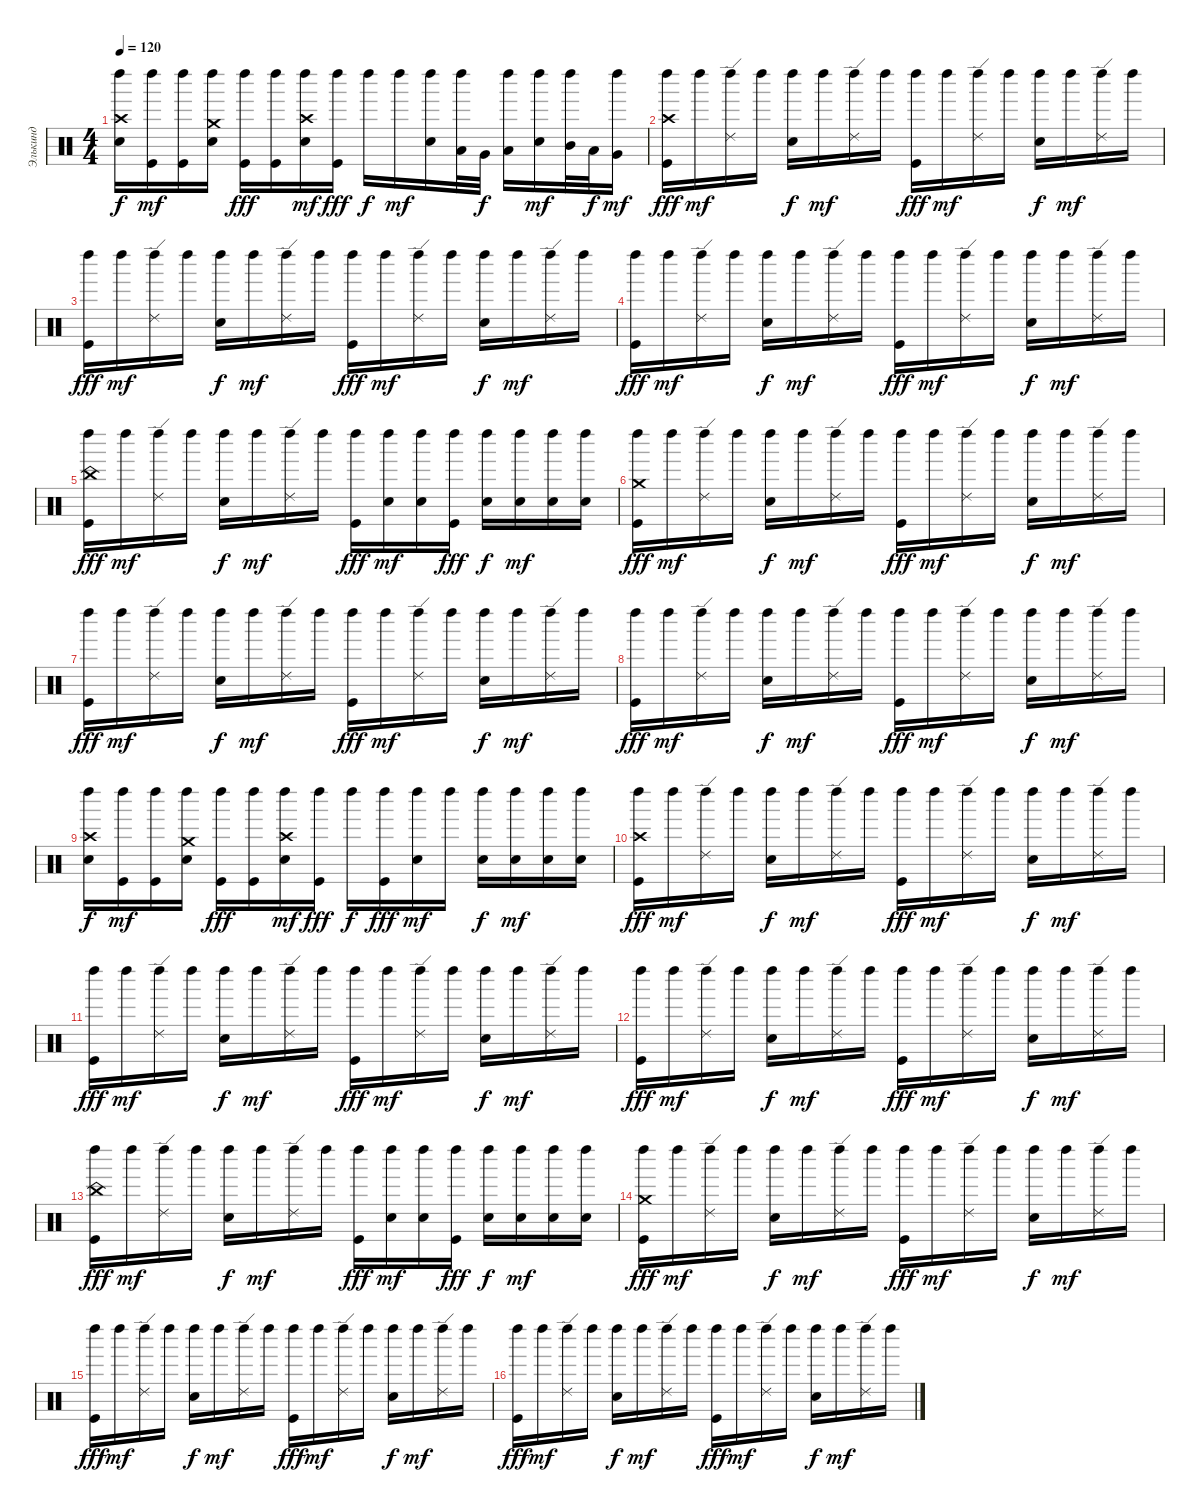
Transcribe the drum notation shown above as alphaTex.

\track ("Элькинд" "Элькинд") {instrument percussion}
\staff {score}
\articulation defaults
\ts (4 4)
\tempo 120
\clef neutral
\ks c
("Crash high (hit)" "Electric Snare (hit)" "Left Maraca (hit)").16{dy f} ("Kick (hit)" "Left Maraca (hit)").16{dy mf} ("Kick (hit)" "Left Maraca (hit)").16 ("Left Maraca (hit)" "Crash medium (hit)" "Electric Snare (hit)").16 ("Kick (hit)" "Left Maraca (hit)").16{dy fff} ("Left Maraca (hit)" "Kick (hit)").16 ("Left Maraca (hit)" "Crash high (hit)" "Electric Snare (hit)").16{dy mf} ("Left Maraca (hit)" "Kick (hit)").16{dy fff} "Left Maraca (hit)".16{dy f} "Left Maraca (hit)".16{dy mf} ("Electric Snare (hit)" "Left Maraca (hit)").16 ("Low Tom (hit)" "Left Maraca (hit)").32 "Very Low Tom (hit)".32{dy f} ("Low Floor Tom (hit)" "Left Maraca (hit)").16 ("Electric Snare (hit)" "Left Maraca (hit)").16{dy mf} ("Mid Tom (hit)" "Left Maraca (hit)").32 "Low Tom (hit)".32{dy f} ("Very Low Tom (hit)" "Left Maraca (hit)").16{dy mf} |
("Left Maraca (hit)" "Crash high (hit)" "Kick (hit)").16{dy fff} "Left Maraca (hit)".16{dy mf} ("Left Maraca (hit)" "Ride (edge) 2").16 "Left Maraca (hit)".16 ("Left Maraca (hit)" "Electric Snare (hit)").16{dy f} "Left Maraca (hit)".16{dy mf} ("Left Maraca (hit)" "Ride (edge) 2").16 "Left Maraca (hit)".16 ("Left Maraca (hit)" "Kick (hit)").16{dy fff} "Left Maraca (hit)".16{dy mf} ("Left Maraca (hit)" "Ride (edge) 2").16 "Left Maraca (hit)".16 ("Left Maraca (hit)" "Electric Snare (hit)").16{dy f} "Left Maraca (hit)".16{dy mf} ("Left Maraca (hit)" "Ride (edge) 2").16 "Left Maraca (hit)".16 |
("Left Maraca (hit)" "Kick (hit)").16{dy fff} "Left Maraca (hit)".16{dy mf} ("Left Maraca (hit)" "Ride (edge) 2").16 "Left Maraca (hit)".16 ("Left Maraca (hit)" "Electric Snare (hit)").16{dy f} "Left Maraca (hit)".16{dy mf} ("Left Maraca (hit)" "Ride (edge) 2").16 "Left Maraca (hit)".16 ("Left Maraca (hit)" "Kick (hit)").16{dy fff} "Left Maraca (hit)".16{dy mf} ("Left Maraca (hit)" "Ride (edge) 2").16 "Left Maraca (hit)".16 ("Left Maraca (hit)" "Electric Snare (hit)").16{dy f} "Left Maraca (hit)".16{dy mf} ("Left Maraca (hit)" "Ride (edge) 2").16 "Left Maraca (hit)".16 |
("Left Maraca (hit)" "Kick (hit)").16{dy fff} "Left Maraca (hit)".16{dy mf} ("Left Maraca (hit)" "Ride (edge) 2").16 "Left Maraca (hit)".16 ("Left Maraca (hit)" "Electric Snare (hit)").16{dy f} "Left Maraca (hit)".16{dy mf} ("Left Maraca (hit)" "Ride (edge) 2").16 "Left Maraca (hit)".16 ("Left Maraca (hit)" "Kick (hit)").16{dy fff} "Left Maraca (hit)".16{dy mf} ("Left Maraca (hit)" "Ride (edge) 2").16 "Left Maraca (hit)".16 ("Left Maraca (hit)" "Electric Snare (hit)").16{dy f} "Left Maraca (hit)".16{dy mf} ("Left Maraca (hit)" "Ride (edge) 2").16 "Left Maraca (hit)".16 |
("Kick (hit)" "China (hit)" "Left Maraca (hit)").16{dy fff} "Left Maraca (hit)".16{dy mf} ("Left Maraca (hit)" "Ride (edge) 2").16 "Left Maraca (hit)".16 ("Electric Snare (hit)" "Left Maraca (hit)").16{dy f} "Left Maraca (hit)".16{dy mf} ("Ride (edge) 2" "Left Maraca (hit)").16 "Left Maraca (hit)".16 ("Left Maraca (hit)" "Kick (hit)").16{dy fff} ("Electric Snare (hit)" "Left Maraca (hit)").16{dy mf} ("Left Maraca (hit)" "Electric Snare (hit)").16 ("Left Maraca (hit)" "Kick (hit)").16{dy fff} ("Electric Snare (hit)" "Left Maraca (hit)").16{dy f} ("Left Maraca (hit)" "Electric Snare (hit)").16{dy mf} ("Left Maraca (hit)" "Electric Snare (hit)").16 ("Electric Snare (hit)" "Left Maraca (hit)").16 |
("Left Maraca (hit)" "Crash medium (hit)" "Kick (hit)").16{dy fff} "Left Maraca (hit)".16{dy mf} ("Left Maraca (hit)" "Ride (edge) 2").16 "Left Maraca (hit)".16 ("Left Maraca (hit)" "Electric Snare (hit)").16{dy f} "Left Maraca (hit)".16{dy mf} ("Left Maraca (hit)" "Ride (edge) 2").16 "Left Maraca (hit)".16 ("Left Maraca (hit)" "Kick (hit)").16{dy fff} "Left Maraca (hit)".16{dy mf} ("Left Maraca (hit)" "Ride (edge) 2").16 "Left Maraca (hit)".16 ("Left Maraca (hit)" "Electric Snare (hit)").16{dy f} "Left Maraca (hit)".16{dy mf} ("Left Maraca (hit)" "Ride (edge) 2").16 "Left Maraca (hit)".16 |
("Left Maraca (hit)" "Kick (hit)").16{dy fff} "Left Maraca (hit)".16{dy mf} ("Left Maraca (hit)" "Ride (edge) 2").16 "Left Maraca (hit)".16 ("Left Maraca (hit)" "Electric Snare (hit)").16{dy f} "Left Maraca (hit)".16{dy mf} ("Left Maraca (hit)" "Ride (edge) 2").16 "Left Maraca (hit)".16 ("Left Maraca (hit)" "Kick (hit)").16{dy fff} "Left Maraca (hit)".16{dy mf} ("Left Maraca (hit)" "Ride (edge) 2").16 "Left Maraca (hit)".16 ("Left Maraca (hit)" "Electric Snare (hit)").16{dy f} "Left Maraca (hit)".16{dy mf} ("Left Maraca (hit)" "Ride (edge) 2").16 "Left Maraca (hit)".16 |
("Left Maraca (hit)" "Kick (hit)").16{dy fff} "Left Maraca (hit)".16{dy mf} ("Left Maraca (hit)" "Ride (edge) 2").16 "Left Maraca (hit)".16 ("Left Maraca (hit)" "Electric Snare (hit)").16{dy f} "Left Maraca (hit)".16{dy mf} ("Left Maraca (hit)" "Ride (edge) 2").16 "Left Maraca (hit)".16 ("Left Maraca (hit)" "Kick (hit)").16{dy fff} "Left Maraca (hit)".16{dy mf} ("Left Maraca (hit)" "Ride (edge) 2").16 "Left Maraca (hit)".16 ("Left Maraca (hit)" "Electric Snare (hit)").16{dy f} "Left Maraca (hit)".16{dy mf} ("Left Maraca (hit)" "Ride (edge) 2").16 "Left Maraca (hit)".16 |
("Crash high (hit)" "Electric Snare (hit)" "Left Maraca (hit)").16{dy f} ("Kick (hit)" "Left Maraca (hit)").16{dy mf} ("Kick (hit)" "Left Maraca (hit)").16 ("Left Maraca (hit)" "Crash medium (hit)" "Electric Snare (hit)").16 ("Kick (hit)" "Left Maraca (hit)").16{dy fff} ("Left Maraca (hit)" "Kick (hit)").16 ("Left Maraca (hit)" "Crash high (hit)" "Electric Snare (hit)").16{dy mf} ("Left Maraca (hit)" "Kick (hit)").16{dy fff} "Left Maraca (hit)".16{dy f} ("Left Maraca (hit)" "Kick (hit)").16{dy fff} ("Electric Snare (hit)" "Left Maraca (hit)").16{dy mf} "Left Maraca (hit)".16 ("Left Maraca (hit)" "Electric Snare (hit)").16{dy f} ("Electric Snare (hit)" "Left Maraca (hit)").16{dy mf} ("Electric Snare (hit)" "Left Maraca (hit)").16 ("Electric Snare (hit)" "Left Maraca (hit)").16 |
("Left Maraca (hit)" "Crash high (hit)" "Kick (hit)").16{dy fff} "Left Maraca (hit)".16{dy mf} ("Left Maraca (hit)" "Ride (edge) 2").16 "Left Maraca (hit)".16 ("Left Maraca (hit)" "Electric Snare (hit)").16{dy f} "Left Maraca (hit)".16{dy mf} ("Left Maraca (hit)" "Ride (edge) 2").16 "Left Maraca (hit)".16 ("Left Maraca (hit)" "Kick (hit)").16{dy fff} "Left Maraca (hit)".16{dy mf} ("Left Maraca (hit)" "Ride (edge) 2").16 "Left Maraca (hit)".16 ("Left Maraca (hit)" "Electric Snare (hit)").16{dy f} "Left Maraca (hit)".16{dy mf} ("Left Maraca (hit)" "Ride (edge) 2").16 "Left Maraca (hit)".16 |
("Left Maraca (hit)" "Kick (hit)").16{dy fff} "Left Maraca (hit)".16{dy mf} ("Left Maraca (hit)" "Ride (edge) 2").16 "Left Maraca (hit)".16 ("Left Maraca (hit)" "Electric Snare (hit)").16{dy f} "Left Maraca (hit)".16{dy mf} ("Left Maraca (hit)" "Ride (edge) 2").16 "Left Maraca (hit)".16 ("Left Maraca (hit)" "Kick (hit)").16{dy fff} "Left Maraca (hit)".16{dy mf} ("Left Maraca (hit)" "Ride (edge) 2").16 "Left Maraca (hit)".16 ("Left Maraca (hit)" "Electric Snare (hit)").16{dy f} "Left Maraca (hit)".16{dy mf} ("Left Maraca (hit)" "Ride (edge) 2").16 "Left Maraca (hit)".16 |
("Left Maraca (hit)" "Kick (hit)").16{dy fff} "Left Maraca (hit)".16{dy mf} ("Left Maraca (hit)" "Ride (edge) 2").16 "Left Maraca (hit)".16 ("Left Maraca (hit)" "Electric Snare (hit)").16{dy f} "Left Maraca (hit)".16{dy mf} ("Left Maraca (hit)" "Ride (edge) 2").16 "Left Maraca (hit)".16 ("Left Maraca (hit)" "Kick (hit)").16{dy fff} "Left Maraca (hit)".16{dy mf} ("Left Maraca (hit)" "Ride (edge) 2").16 "Left Maraca (hit)".16 ("Left Maraca (hit)" "Electric Snare (hit)").16{dy f} "Left Maraca (hit)".16{dy mf} ("Left Maraca (hit)" "Ride (edge) 2").16 "Left Maraca (hit)".16 |
("Kick (hit)" "China (hit)" "Left Maraca (hit)").16{dy fff} "Left Maraca (hit)".16{dy mf} ("Left Maraca (hit)" "Ride (edge) 2").16 "Left Maraca (hit)".16 ("Electric Snare (hit)" "Left Maraca (hit)").16{dy f} "Left Maraca (hit)".16{dy mf} ("Ride (edge) 2" "Left Maraca (hit)").16 "Left Maraca (hit)".16 ("Left Maraca (hit)" "Kick (hit)").16{dy fff} ("Electric Snare (hit)" "Left Maraca (hit)").16{dy mf} ("Left Maraca (hit)" "Electric Snare (hit)").16 ("Left Maraca (hit)" "Kick (hit)").16{dy fff} ("Electric Snare (hit)" "Left Maraca (hit)").16{dy f} ("Left Maraca (hit)" "Electric Snare (hit)").16{dy mf} ("Left Maraca (hit)" "Electric Snare (hit)").16 ("Electric Snare (hit)" "Left Maraca (hit)").16 |
("Left Maraca (hit)" "Crash medium (hit)" "Kick (hit)").16{dy fff} "Left Maraca (hit)".16{dy mf} ("Left Maraca (hit)" "Ride (edge) 2").16 "Left Maraca (hit)".16 ("Left Maraca (hit)" "Electric Snare (hit)").16{dy f} "Left Maraca (hit)".16{dy mf} ("Left Maraca (hit)" "Ride (edge) 2").16 "Left Maraca (hit)".16 ("Left Maraca (hit)" "Kick (hit)").16{dy fff} "Left Maraca (hit)".16{dy mf} ("Left Maraca (hit)" "Ride (edge) 2").16 "Left Maraca (hit)".16 ("Left Maraca (hit)" "Electric Snare (hit)").16{dy f} "Left Maraca (hit)".16{dy mf} ("Left Maraca (hit)" "Ride (edge) 2").16 "Left Maraca (hit)".16 |
("Left Maraca (hit)" "Kick (hit)").16{dy fff} "Left Maraca (hit)".16{dy mf} ("Left Maraca (hit)" "Ride (edge) 2").16 "Left Maraca (hit)".16 ("Left Maraca (hit)" "Electric Snare (hit)").16{dy f} "Left Maraca (hit)".16{dy mf} ("Left Maraca (hit)" "Ride (edge) 2").16 "Left Maraca (hit)".16 ("Left Maraca (hit)" "Kick (hit)").16{dy fff} "Left Maraca (hit)".16{dy mf} ("Left Maraca (hit)" "Ride (edge) 2").16 "Left Maraca (hit)".16 ("Left Maraca (hit)" "Electric Snare (hit)").16{dy f} "Left Maraca (hit)".16{dy mf} ("Left Maraca (hit)" "Ride (edge) 2").16 "Left Maraca (hit)".16 |
("Left Maraca (hit)" "Kick (hit)").16{dy fff} "Left Maraca (hit)".16{dy mf} ("Left Maraca (hit)" "Ride (edge) 2").16 "Left Maraca (hit)".16 ("Left Maraca (hit)" "Electric Snare (hit)").16{dy f} "Left Maraca (hit)".16{dy mf} ("Left Maraca (hit)" "Ride (edge) 2").16 "Left Maraca (hit)".16 ("Left Maraca (hit)" "Kick (hit)").16{dy fff} "Left Maraca (hit)".16{dy mf} ("Left Maraca (hit)" "Ride (edge) 2").16 "Left Maraca (hit)".16 ("Left Maraca (hit)" "Electric Snare (hit)").16{dy f} "Left Maraca (hit)".16{dy mf} ("Left Maraca (hit)" "Ride (edge) 2").16 "Left Maraca (hit)".16
